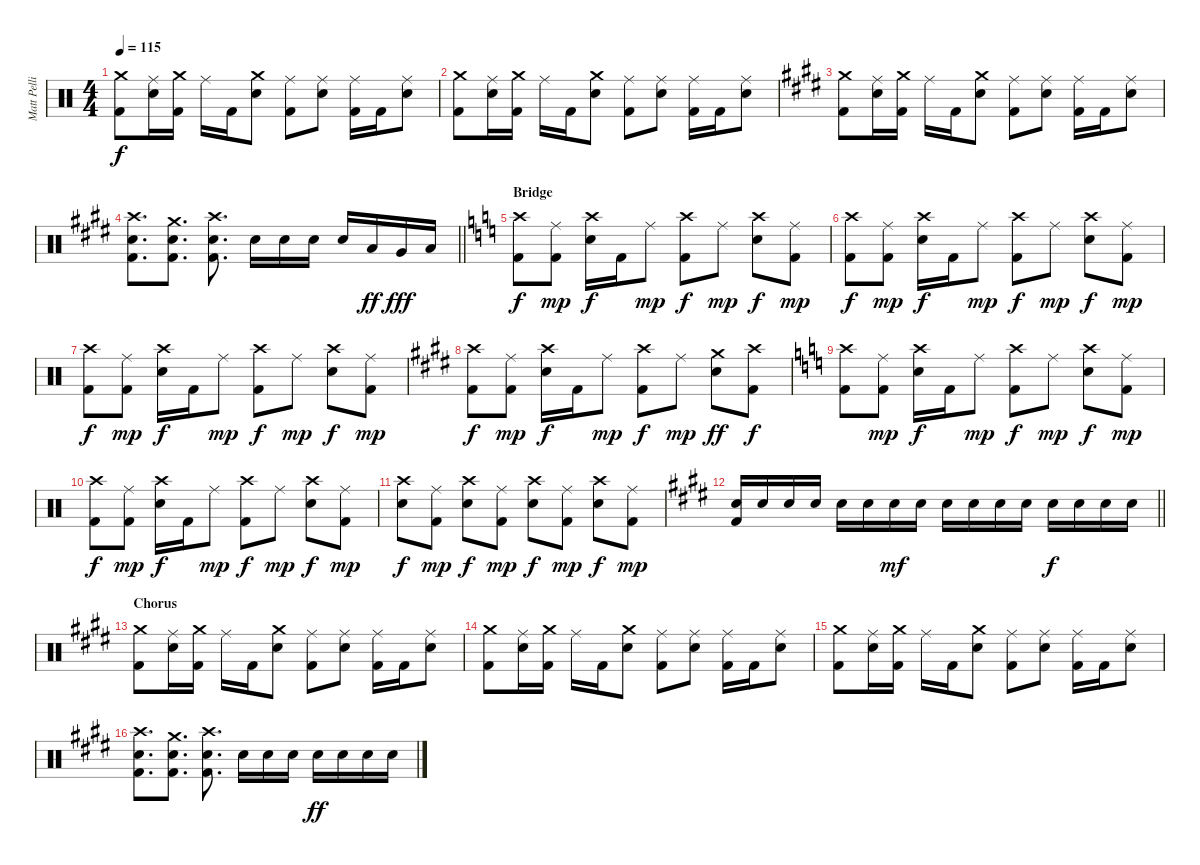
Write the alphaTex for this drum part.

\track ("Matt Pellissier" "Matt Pelli") {instrument percussion}
\staff {score}
\articulation defaults
\ts (4 4)
\tempo 115
\clef neutral
\ks c
("Crash medium (hit)" "Kick (hit) 2").8{dy f} ("Ride (middle)" "Snare (hit) 2").16 ("Crash medium (hit)" "Kick (hit) 2").16 "Ride (middle)".16 "Kick (hit) 2".16 ("Crash medium (hit)" "Snare (hit) 2").8 ("Ride (middle)" "Kick (hit) 2").8 ("Ride (middle)" "Snare (hit) 2").8 ("Ride (middle)" "Kick (hit) 2").16 "Kick (hit) 2".16 ("Ride (middle)" "Snare (hit) 2").8 |
("Crash medium (hit)" "Kick (hit) 2").8 ("Ride (middle)" "Snare (hit) 2").16 ("Crash medium (hit)" "Kick (hit) 2").16 "Ride (middle)".16 "Kick (hit) 2".16 ("Crash medium (hit)" "Snare (hit) 2").8 ("Ride (middle)" "Kick (hit) 2").8 ("Ride (middle)" "Snare (hit) 2").8 ("Ride (middle)" "Kick (hit) 2").16 "Kick (hit) 2".16 ("Ride (middle)" "Snare (hit) 2").8 |
\ks e
("Crash medium (hit)" "Kick (hit) 2").8 ("Ride (middle)" "Snare (hit) 2").16 ("Crash medium (hit)" "Kick (hit) 2").16 "Ride (middle)".16 "Kick (hit) 2".16 ("Crash medium (hit)" "Snare (hit) 2").8 ("Ride (middle)" "Kick (hit) 2").8 ("Ride (middle)" "Snare (hit) 2").8 ("Ride (middle)" "Kick (hit) 2").16 "Kick (hit) 2".16 ("Ride (middle)" "Snare (hit) 2").8 |
\barLineRight lightlight
("Crash high (hit)" "Snare (hit) 2" "Kick (hit) 2").8{d} ("Crash medium (hit)" "Snare (hit) 2" "Kick (hit) 2").8{d} ("Crash high (hit)" "Snare (hit) 2" "Kick (hit) 2").8{d} "Snare (hit) 2".16 "Snare (hit) 2".16 "Snare (hit) 2".16 "Snare (hit) 2".16 "Low Tom (hit)".16{dy ff} "Very Low Tom (hit)".16{dy fff} "Low Floor Tom (hit)".16 |
\section ("" "Bridge")
\ks c
("Crash high (hit)" "Kick (hit) 2").8{dy f} ("Ride (middle)" "Kick (hit) 2").8{dy mp} ("Crash high (hit)" "Snare (hit) 2").16{dy f} "Kick (hit) 2".16 "Ride (middle)".8{dy mp} ("Crash high (hit)" "Kick (hit) 2").8{dy f} "Ride (middle)".8{dy mp} ("Crash high (hit)" "Snare (hit) 2").8{dy f} ("Ride (middle)" "Kick (hit) 2").8{dy mp} |
("Crash high (hit)" "Kick (hit) 2").8{dy f} ("Ride (middle)" "Kick (hit) 2").8{dy mp} ("Crash high (hit)" "Snare (hit) 2").16{dy f} "Kick (hit) 2".16 "Ride (middle)".8{dy mp} ("Crash high (hit)" "Kick (hit) 2").8{dy f} "Ride (middle)".8{dy mp} ("Crash high (hit)" "Snare (hit) 2").8{dy f} ("Ride (middle)" "Kick (hit) 2").8{dy mp} |
("Crash high (hit)" "Kick (hit) 2").8{dy f} ("Ride (middle)" "Kick (hit) 2").8{dy mp} ("Crash high (hit)" "Snare (hit) 2").16{dy f} "Kick (hit) 2".16 "Ride (middle)".8{dy mp} ("Crash high (hit)" "Kick (hit) 2").8{dy f} "Ride (middle)".8{dy mp} ("Crash high (hit)" "Snare (hit) 2").8{dy f} ("Ride (middle)" "Kick (hit) 2").8{dy mp} |
\ks e
("Crash high (hit)" "Kick (hit) 2").8{dy f} ("Ride (middle)" "Kick (hit) 2").8{dy mp} ("Crash high (hit)" "Snare (hit) 2").16{dy f} "Kick (hit) 2".16 "Ride (middle)".8{dy mp} ("Crash high (hit)" "Kick (hit) 2").8{dy f} "Ride (middle)".8{dy mp} ("Crash medium (hit)" "Snare (hit) 2").8{dy ff} ("Crash high (hit)" "Kick (hit) 2").8{dy f} |
\ks c
("Crash high (hit)" "Kick (hit) 2").8 ("Ride (middle)" "Kick (hit) 2").8{dy mp} ("Crash high (hit)" "Snare (hit) 2").16{dy f} "Kick (hit) 2".16 "Ride (middle)".8{dy mp} ("Crash high (hit)" "Kick (hit) 2").8{dy f} "Ride (middle)".8{dy mp} ("Crash high (hit)" "Snare (hit) 2").8{dy f} ("Ride (middle)" "Kick (hit) 2").8{dy mp} |
("Crash high (hit)" "Kick (hit) 2").8{dy f} ("Ride (middle)" "Kick (hit) 2").8{dy mp} ("Crash high (hit)" "Snare (hit) 2").16{dy f} "Kick (hit) 2".16 "Ride (middle)".8{dy mp} ("Crash high (hit)" "Kick (hit) 2").8{dy f} "Ride (middle)".8{dy mp} ("Crash high (hit)" "Snare (hit) 2").8{dy f} ("Ride (middle)" "Kick (hit) 2").8{dy mp} |
("Crash high (hit)" "Snare (hit) 2").8{dy f} ("Ride (middle)" "Kick (hit) 2").8{dy mp} ("Crash high (hit)" "Snare (hit) 2").8{dy f} ("Ride (middle)" "Kick (hit) 2").8{dy mp} ("Crash high (hit)" "Snare (hit) 2").8{dy f} ("Ride (middle)" "Kick (hit) 2").8{dy mp} ("Crash high (hit)" "Snare (hit) 2").8{dy f} ("Ride (middle)" "Kick (hit) 2").8{dy mp} |
\barLineRight lightlight
\ks e
("Snare (hit) 2" "Kick (hit) 2").16{volume 16} "Snare (hit) 2".16 "Snare (hit) 2".16 "Snare (hit) 2".16 "Snare (hit) 2".16 "Snare (hit) 2".16 "Snare (hit) 2".16{dy mf} "Snare (hit) 2".16 "Snare (hit) 2".16 "Snare (hit) 2".16 "Snare (hit) 2".16 "Snare (hit) 2".16 "Snare (hit) 2".16{dy f} "Snare (hit) 2".16 "Snare (hit) 2".16 "Snare (hit) 2".16 |
\section ("" "Chorus")
("Crash medium (hit)" "Kick (hit) 2").8{volume 14} ("Ride (middle)" "Snare (hit) 2").16 ("Crash medium (hit)" "Kick (hit) 2").16 "Ride (middle)".16 "Kick (hit) 2".16 ("Crash medium (hit)" "Snare (hit) 2").8 ("Ride (middle)" "Kick (hit) 2").8 ("Ride (middle)" "Snare (hit) 2").8 ("Ride (middle)" "Kick (hit) 2").16 "Kick (hit) 2".16 ("Ride (middle)" "Snare (hit) 2").8 |
("Crash medium (hit)" "Kick (hit) 2").8 ("Ride (middle)" "Snare (hit) 2").16 ("Crash medium (hit)" "Kick (hit) 2").16 "Ride (middle)".16 "Kick (hit) 2".16 ("Crash medium (hit)" "Snare (hit) 2").8 ("Ride (middle)" "Kick (hit) 2").8 ("Ride (middle)" "Snare (hit) 2").8 ("Ride (middle)" "Kick (hit) 2").16 "Kick (hit) 2".16 ("Ride (middle)" "Snare (hit) 2").8 |
("Crash medium (hit)" "Kick (hit) 2").8 ("Ride (middle)" "Snare (hit) 2").16 ("Crash medium (hit)" "Kick (hit) 2").16 "Ride (middle)".16 "Kick (hit) 2".16 ("Crash medium (hit)" "Snare (hit) 2").8 ("Ride (middle)" "Kick (hit) 2").8 ("Ride (middle)" "Snare (hit) 2").8 ("Ride (middle)" "Kick (hit) 2").16 "Kick (hit) 2".16 ("Ride (middle)" "Snare (hit) 2").8 |
("Crash high (hit)" "Snare (hit) 2" "Kick (hit) 2").8{d} ("Crash medium (hit)" "Snare (hit) 2" "Kick (hit) 2").8{d} ("Crash high (hit)" "Snare (hit) 2" "Kick (hit) 2").8{d} "Snare (hit) 2".16 "Snare (hit) 2".16 "Snare (hit) 2".16 "Snare (hit) 2".16{dy ff} "Snare (hit) 2".16 "Snare (hit) 2".16 "Snare (hit) 2".16
